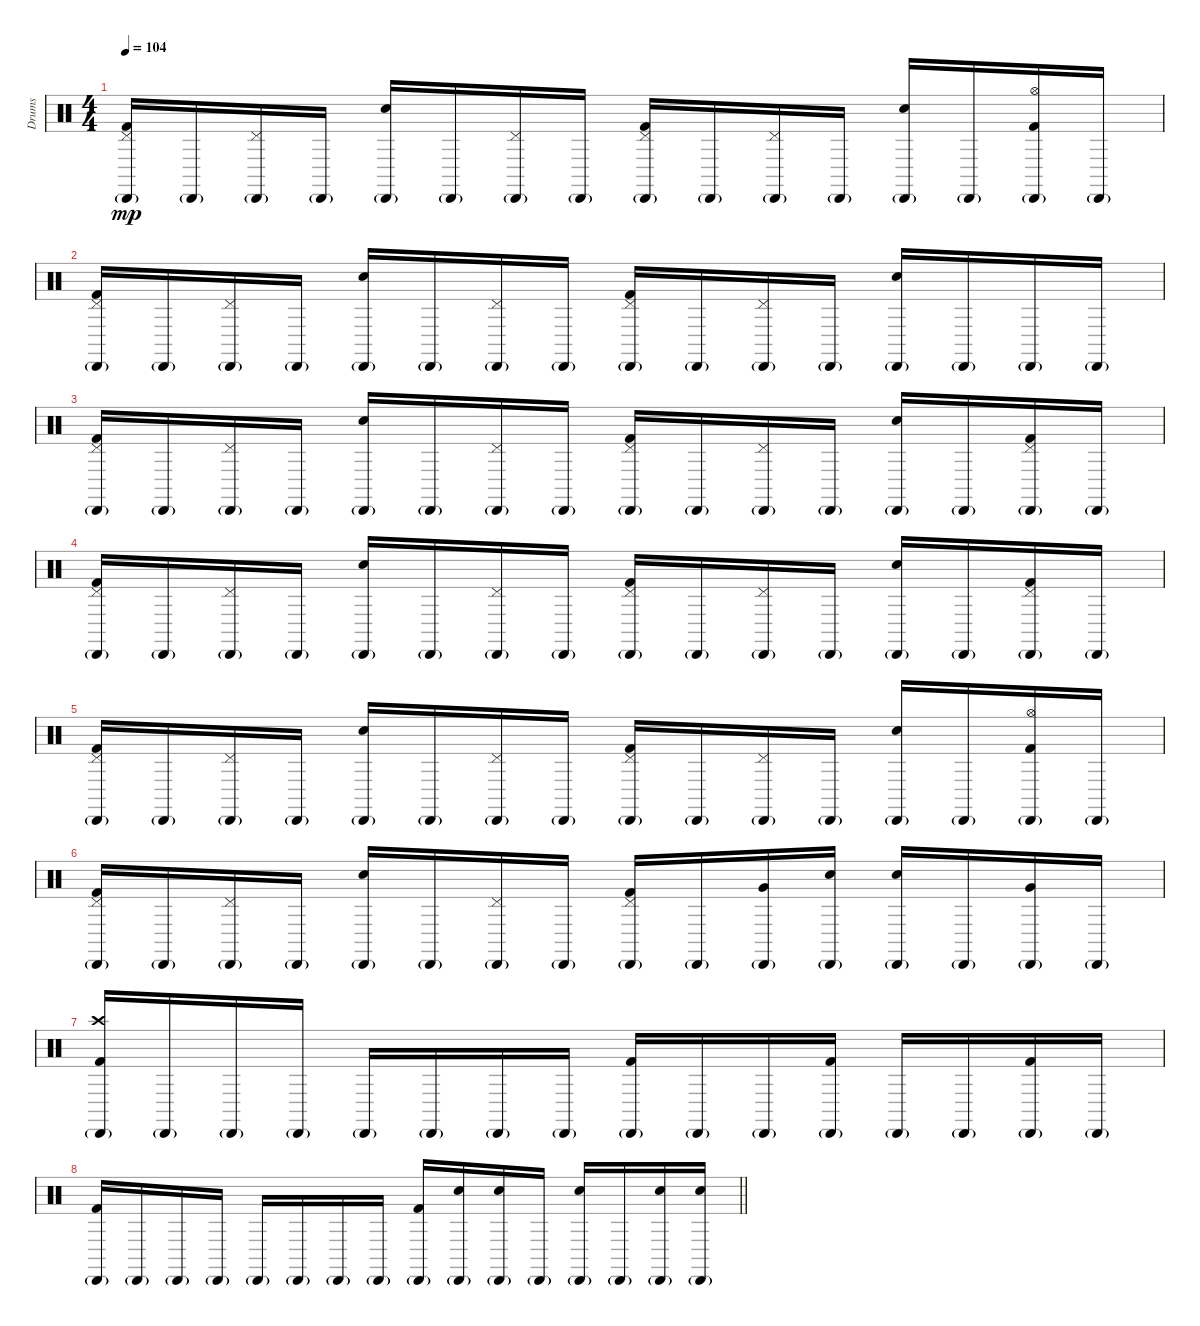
\track ("Drums" "Drums") {instrument percussion}
\staff {score}
\articulation defaults
\ts (4 4)
\tempo 104
\clef neutral
\ks c
("Pedal Hi-Hat (hit)" "Cabasa (hit)"{g} "Kick (hit) 2").16{dy mp} "Cabasa (hit)"{g}.16 ("Pedal Hi-Hat (hit)" "Cabasa (hit)"{g}).16 "Cabasa (hit)"{g}.16 ("Snare (hit) 2" "Cabasa (hit)"{g}).16 "Cabasa (hit)"{g}.16 ("Pedal Hi-Hat (hit)" "Cabasa (hit)"{g}).16 "Cabasa (hit)"{g}.16 ("Pedal Hi-Hat (hit)" "Cabasa (hit)"{g} "Kick (hit) 2").16 "Cabasa (hit)"{g}.16 ("Pedal Hi-Hat (hit)" "Cabasa (hit)"{g}).16 "Cabasa (hit)"{g}.16 ("Snare (hit) 2" "Cabasa (hit)"{g}).16 "Cabasa (hit)"{g}.16 ("Hi-Hat (open)" "Cabasa (hit)"{g} "Kick (hit) 2").16 "Cabasa (hit)"{g}.16 |
("Pedal Hi-Hat (hit)" "Cabasa (hit)"{g} "Kick (hit) 2").16 "Cabasa (hit)"{g}.16 ("Pedal Hi-Hat (hit)" "Cabasa (hit)"{g}).16 "Cabasa (hit)"{g}.16 ("Snare (hit) 2" "Cabasa (hit)"{g}).16 "Cabasa (hit)"{g}.16 ("Pedal Hi-Hat (hit)" "Cabasa (hit)"{g}).16 "Cabasa (hit)"{g}.16 ("Pedal Hi-Hat (hit)" "Cabasa (hit)"{g} "Kick (hit) 2").16 "Cabasa (hit)"{g}.16 ("Pedal Hi-Hat (hit)" "Cabasa (hit)"{g}).16 "Cabasa (hit)"{g}.16 ("Snare (hit) 2" "Cabasa (hit)"{g}).16 "Cabasa (hit)"{g}.16 "Cabasa (hit)"{g}.16 "Cabasa (hit)"{g}.16 |
("Pedal Hi-Hat (hit)" "Cabasa (hit)"{g} "Kick (hit) 2").16 "Cabasa (hit)"{g}.16 ("Pedal Hi-Hat (hit)" "Cabasa (hit)"{g}).16 "Cabasa (hit)"{g}.16 ("Snare (hit) 2" "Cabasa (hit)"{g}).16 "Cabasa (hit)"{g}.16 ("Pedal Hi-Hat (hit)" "Cabasa (hit)"{g}).16 "Cabasa (hit)"{g}.16 ("Pedal Hi-Hat (hit)" "Cabasa (hit)"{g} "Kick (hit) 2").16 "Cabasa (hit)"{g}.16 ("Pedal Hi-Hat (hit)" "Cabasa (hit)"{g}).16 "Cabasa (hit)"{g}.16 ("Snare (hit) 2" "Cabasa (hit)"{g}).16 "Cabasa (hit)"{g}.16 ("Pedal Hi-Hat (hit)" "Cabasa (hit)"{g} "Kick (hit) 2").16 "Cabasa (hit)"{g}.16 |
("Pedal Hi-Hat (hit)" "Cabasa (hit)"{g} "Kick (hit) 2").16 "Cabasa (hit)"{g}.16 ("Pedal Hi-Hat (hit)" "Cabasa (hit)"{g}).16 "Cabasa (hit)"{g}.16 ("Snare (hit) 2" "Cabasa (hit)"{g}).16 "Cabasa (hit)"{g}.16 ("Pedal Hi-Hat (hit)" "Cabasa (hit)"{g}).16 "Cabasa (hit)"{g}.16 ("Pedal Hi-Hat (hit)" "Cabasa (hit)"{g} "Kick (hit) 2").16 "Cabasa (hit)"{g}.16 ("Pedal Hi-Hat (hit)" "Cabasa (hit)"{g}).16 "Cabasa (hit)"{g}.16 ("Snare (hit) 2" "Cabasa (hit)"{g}).16 "Cabasa (hit)"{g}.16 ("Pedal Hi-Hat (hit)" "Cabasa (hit)"{g} "Kick (hit) 2").16 "Cabasa (hit)"{g}.16 |
("Pedal Hi-Hat (hit)" "Cabasa (hit)"{g} "Kick (hit) 2").16 "Cabasa (hit)"{g}.16 ("Pedal Hi-Hat (hit)" "Cabasa (hit)"{g}).16 "Cabasa (hit)"{g}.16 ("Snare (hit) 2" "Cabasa (hit)"{g}).16 "Cabasa (hit)"{g}.16 ("Pedal Hi-Hat (hit)" "Cabasa (hit)"{g}).16 "Cabasa (hit)"{g}.16 ("Pedal Hi-Hat (hit)" "Cabasa (hit)"{g} "Kick (hit) 2").16 "Cabasa (hit)"{g}.16 ("Pedal Hi-Hat (hit)" "Cabasa (hit)"{g}).16 "Cabasa (hit)"{g}.16 ("Snare (hit) 2" "Cabasa (hit)"{g}).16 "Cabasa (hit)"{g}.16 ("Hi-Hat (open)" "Cabasa (hit)"{g} "Kick (hit) 2").16 "Cabasa (hit)"{g}.16 |
("Pedal Hi-Hat (hit)" "Cabasa (hit)"{g} "Kick (hit) 2").16 "Cabasa (hit)"{g}.16 ("Pedal Hi-Hat (hit)" "Cabasa (hit)"{g}).16 "Cabasa (hit)"{g}.16 ("Snare (hit) 2" "Cabasa (hit)"{g}).16 "Cabasa (hit)"{g}.16 ("Pedal Hi-Hat (hit)" "Cabasa (hit)"{g}).16 "Cabasa (hit)"{g}.16 ("Pedal Hi-Hat (hit)" "Cabasa (hit)"{g} "Kick (hit) 2").16 "Cabasa (hit)"{g}.16 ("Very Low Tom (hit)" "Cabasa (hit)"{g}).16 ("Snare (hit) 2" "Cabasa (hit)"{g}).16 ("Snare (hit) 2" "Cabasa (hit)"{g}).16 "Cabasa (hit)"{g}.16 ("Very Low Tom (hit)" "Cabasa (hit)"{g}).16 "Cabasa (hit)"{g}.16 |
("Crash high (hit)" "Cabasa (hit)"{g} "Kick (hit) 2").16 "Cabasa (hit)"{g}.16 "Cabasa (hit)"{g}.16 "Cabasa (hit)"{g}.16 "Cabasa (hit)"{g}.16 "Cabasa (hit)"{g}.16 "Cabasa (hit)"{g}.16 "Cabasa (hit)"{g}.16 ("Cabasa (hit)"{g} "Kick (hit) 2").16 "Cabasa (hit)"{g}.16 "Cabasa (hit)"{g}.16 ("Cabasa (hit)"{g} "Kick (hit) 2").16 "Cabasa (hit)"{g}.16 "Cabasa (hit)"{g}.16 ("Cabasa (hit)"{g} "Kick (hit) 2").16 "Cabasa (hit)"{g}.16 |
\barLineRight lightlight
("Cabasa (hit)"{g} "Kick (hit) 2").16 "Cabasa (hit)"{g}.16 "Cabasa (hit)"{g}.16 "Cabasa (hit)"{g}.16 "Cabasa (hit)"{g}.16 "Cabasa (hit)"{g}.16 "Cabasa (hit)"{g}.16 "Cabasa (hit)"{g}.16 ("Cabasa (hit)"{g} "Kick (hit) 2").16 ("Snare (hit) 2" "Cabasa (hit)"{g}).16 ("Snare (hit) 2" "Cabasa (hit)"{g}).16 "Cabasa (hit)"{g}.16 ("Snare (hit) 2" "Cabasa (hit)"{g}).16 "Cabasa (hit)"{g}.16 ("Snare (hit) 2" "Cabasa (hit)"{g}).16 ("Snare (hit) 2" "Cabasa (hit)"{g}).16
